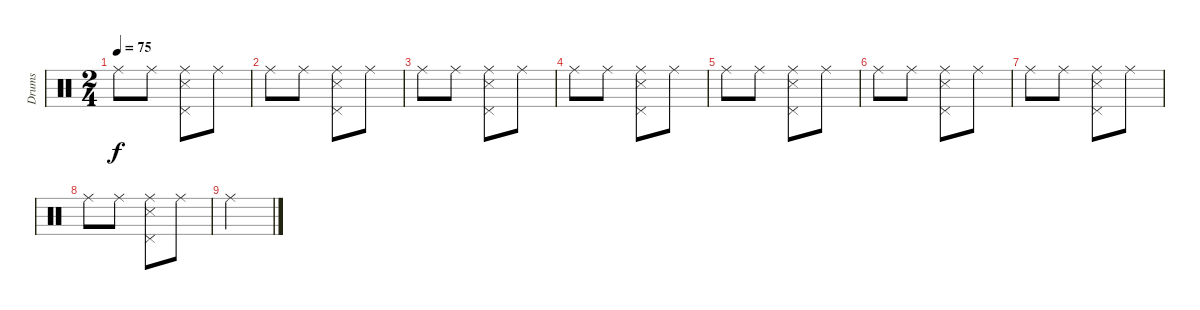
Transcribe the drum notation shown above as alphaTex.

\track ("Drums" "Drums") {instrument percussion}
\staff {score}
\articulation defaults
\ts (2 4)
\tempo 75
\clef neutral
\ks c "Ride (middle)".8{dy f} "Ride (middle)".8
("Ride (middle)" "Pedal Hi-Hat (hit)" "Snare (side stick) 3").8 "Ride (middle)".8 |
"Ride (middle)".8 "Ride (middle)".8 ("Ride (middle)" "Pedal Hi-Hat (hit)" "Snare (side stick) 3").8 "Ride (middle)".8 |
"Ride (middle)".8 "Ride (middle)".8 ("Ride (middle)" "Pedal Hi-Hat (hit)" "Snare (side stick) 3").8 "Ride (middle)".8 |
"Ride (middle)".8 "Ride (middle)".8 ("Ride (middle)" "Pedal Hi-Hat (hit)" "Snare (side stick) 3").8 "Ride (middle)".8 |
"Ride (middle)".8 "Ride (middle)".8 ("Ride (middle)" "Pedal Hi-Hat (hit)" "Snare (side stick) 3").8 "Ride (middle)".8 |
"Ride (middle)".8 "Ride (middle)".8 ("Ride (middle)" "Pedal Hi-Hat (hit)" "Snare (side stick) 3").8 "Ride (middle)".8 |
"Ride (middle)".8 "Ride (middle)".8 ("Ride (middle)" "Pedal Hi-Hat (hit)" "Snare (side stick) 3").8 "Ride (middle)".8 |
"Ride (middle)".8 "Ride (middle)".8 ("Ride (middle)" "Pedal Hi-Hat (hit)" "Snare (side stick) 3").8 "Ride (middle)".8 |
"Ride (middle)".2
